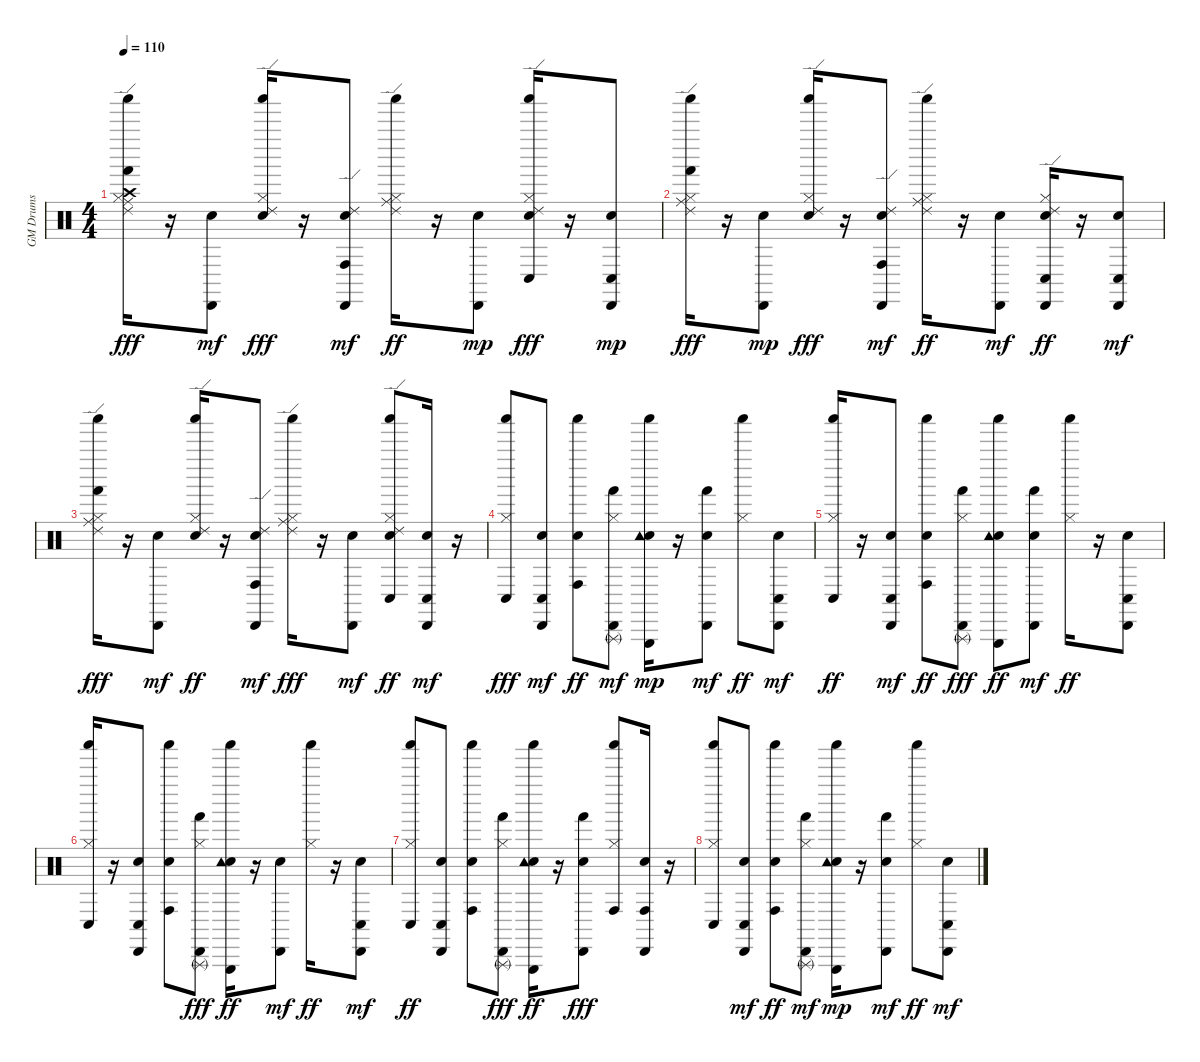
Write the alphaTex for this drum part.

\track ("GM Drums" "GM Drums") {instrument percussion}
\staff {score}
\articulation defaults
\ts (4 4)
\tempo 110
\clef neutral
\ks c
("Hi-Hat (closed)" "Crash high (hit)" "Ride (middle)" "Ride (edge) 2" "Hand (hit)" "Shaker (hit)").16{dy fff} r.16 ("Snare (hit)" "Cabasa (hit)").8{dy mf} ("Snare (hit) 2" "Hi-Hat (closed)" "Ride (edge) 2" "Shaker (hit)").16{dy fff} r.16 ("Snare (hit)" "Ride (edge) 2" "Conga high (hit)" "Cabasa (hit)").8{dy mf} ("Hi-Hat (closed)" "Ride (middle)" "Ride (edge) 2" "Shaker (hit)").16{dy ff} r.16 ("Snare (hit)" "Cabasa (hit)").8{dy mp} ("Snare (hit) 2" "Hi-Hat (closed)" "Ride (edge) 2" "Conga low (hit)" "Shaker (hit)").16{dy fff} r.16 ("Snare (hit)" "Conga low (hit)" "Cabasa (hit)").8{dy mp} |
("Hi-Hat (closed)" "Ride (middle)" "Ride (edge) 2" "Hand (hit)" "Shaker (hit)").16{dy fff} r.16 ("Snare (hit)" "Cabasa (hit)").8{dy mp} ("Snare (hit) 2" "Hi-Hat (closed)" "Ride (edge) 2" "Shaker (hit)").16{dy fff} r.16 ("Snare (hit)" "Ride (edge) 2" "Conga high (hit)" "Cabasa (hit)").8{dy mf} ("Hi-Hat (closed)" "Ride (middle)" "Ride (edge) 2" "Shaker (hit)").16{dy ff} r.16 ("Snare (hit)" "Cabasa (hit)").8{dy mf} ("Snare (hit) 2" "Hi-Hat (closed)" "Ride (edge) 2" "Conga low (hit)" "Cabasa (hit)").16{dy ff} r.16 ("Snare (hit)" "Conga low (hit)" "Cabasa (hit)").8{dy mf} |
("Hi-Hat (closed)" "Ride (middle)" "Ride (edge) 2" "Hand (hit)" "Shaker (hit)").16{dy fff} r.16 ("Snare (hit)" "Cabasa (hit)").8{dy mf} ("Snare (hit) 2" "Hi-Hat (closed)" "Ride (edge) 2" "Shaker (hit)").16{dy ff} r.16 ("Snare (hit)" "Ride (edge) 2" "Conga high (hit)" "Cabasa (hit)").8{dy mf} ("Hi-Hat (closed)" "Ride (middle)" "Ride (edge) 2" "Shaker (hit)").16{dy fff} r.16 ("Snare (hit)" "Cabasa (hit)").8{dy mf} ("Snare (hit) 2" "Hi-Hat (closed)" "Ride (edge) 2" "Conga low (hit)" "Shaker (hit)").8{dy ff} ("Snare (hit)" "Conga low (hit)" "Cabasa (hit)").16{dy mf} r.16 |
("Hi-Hat (closed)" "Conga low (hit)" "Shaker (hit)").8{dy fff} ("Snare (hit)" "Conga low (hit)" "Cabasa (hit)").8{dy mf} ("Snare (hit)" "Conga high (hit)" "Shaker (hit)").8{dy ff} ("Hi-Hat (closed)" "Hand (hit)" "Cabasa (hit)" "Triangle (rnute)").8{dy mf} ("Snare (hit)" "Tambourine (hit)" "Triangle (hit)" "Shaker (hit)").16{dy mp} r.16 ("Snare (hit)" "Hand (hit)" "Cabasa (hit)").8{dy mf} ("Hi-Hat (closed)" "Shaker (hit)").8{dy ff} ("Snare (hit)" "Conga low (hit)" "Cabasa (hit)").8{dy mf} |
("Hi-Hat (closed)" "Conga low (hit)" "Shaker (hit)").16{dy ff} r.16 ("Snare (hit)" "Conga low (hit)" "Cabasa (hit)").8{dy mf} ("Snare (hit)" "Conga high (hit)" "Shaker (hit)").8{dy ff} ("Hi-Hat (closed)" "Hand (hit)" "Cabasa (hit)" "Triangle (rnute)").8{dy fff} ("Snare (hit)" "Tambourine (hit)" "Triangle (hit)" "Shaker (hit)").8{dy ff} ("Snare (hit)" "Hand (hit)" "Cabasa (hit)").8{dy mf} ("Hi-Hat (closed)" "Shaker (hit)").16{dy ff} r.16 ("Snare (hit)" "Conga low (hit)" "Cabasa (hit)").8 |
("Hi-Hat (closed)" "Conga low (hit)" "Shaker (hit)").16 r.16 ("Snare (hit)" "Conga low (hit)" "Cabasa (hit)").8 ("Snare (hit)" "Conga high (hit)" "Shaker (hit)").8 ("Hi-Hat (closed)" "Hand (hit)" "Cabasa (hit)" "Triangle (rnute)").8{dy fff} ("Snare (hit)" "Tambourine (hit)" "Triangle (hit)" "Shaker (hit)").16{dy ff} r.16 ("Snare (hit)" "Cabasa (hit)").8{dy mf} ("Hi-Hat (closed)" "Shaker (hit)").16{dy ff} r.16 ("Snare (hit)" "Conga low (hit)" "Cabasa (hit)").8{dy mf} |
("Hi-Hat (closed)" "Conga low (hit)" "Shaker (hit)").8{dy ff} ("Snare (hit)" "Conga low (hit)" "Cabasa (hit)").8 ("Snare (hit)" "Conga high (hit)" "Shaker (hit)").8 ("Hi-Hat (closed)" "Hand (hit)" "Cabasa (hit)" "Triangle (rnute)").8{dy fff} ("Snare (hit)" "Tambourine (hit)" "Triangle (hit)" "Shaker (hit)").16{dy ff} r.16 ("Snare (hit)" "Hand (hit)" "Cabasa (hit)").8{dy fff} ("Hi-Hat (closed)" "Conga high (hit)" "Shaker (hit)").8 ("Snare (hit)" "Conga high (hit)" "Cabasa (hit)").16 r.16 |
("Hi-Hat (closed)" "Conga low (hit)" "Shaker (hit)").8 ("Snare (hit)" "Conga low (hit)" "Cabasa (hit)").8{dy mf} ("Snare (hit)" "Conga high (hit)" "Shaker (hit)").8{dy ff} ("Hi-Hat (closed)" "Hand (hit)" "Cabasa (hit)" "Triangle (rnute)").8{dy mf} ("Snare (hit)" "Tambourine (hit)" "Triangle (hit)" "Shaker (hit)").16{dy mp} r.16 ("Snare (hit)" "Hand (hit)" "Cabasa (hit)").8{dy mf} ("Hi-Hat (closed)" "Shaker (hit)").8{dy ff} ("Snare (hit)" "Conga low (hit)" "Cabasa (hit)").8{dy mf}
